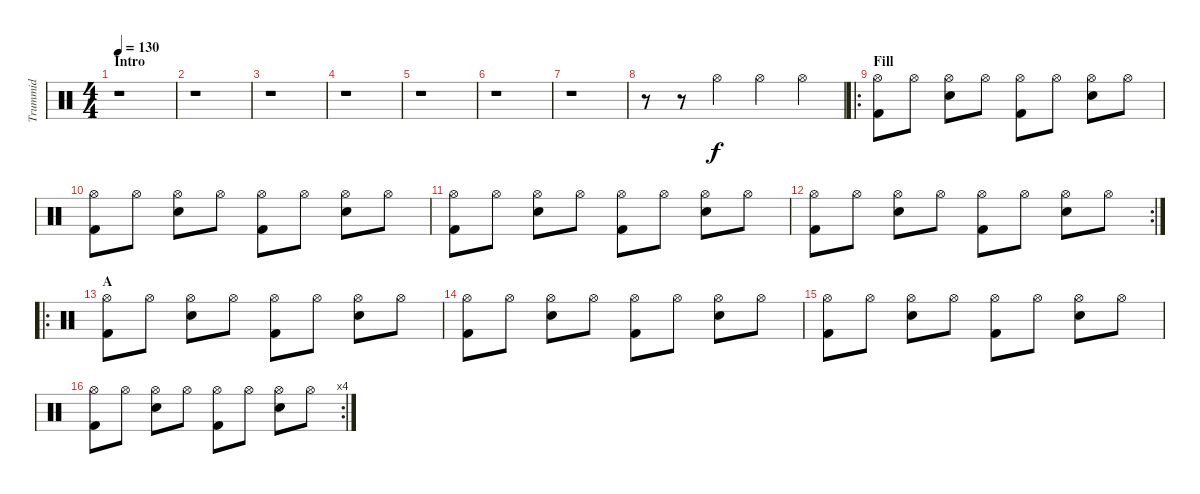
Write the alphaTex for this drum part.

\track ("Trummid" "Trummid") {instrument percussion}
\staff {score}
\articulation defaults
\ts (4 4)
\section ("" "Intro")
\tempo 130
\clef neutral
\ks c
r.1{dy f} |
r.1 |
r.1 |
r.1 |
r.1 |
r.1 |
r.1 |
r.8 r.8 "Hi-Hat (open)".4 "Hi-Hat (open)".4 "Hi-Hat (open)".4 |
\ro
\section ("" "Fill")
("Hi-Hat (open)" "Kick (hit) 2").8 "Hi-Hat (open)".8 ("Hi-Hat (open)" "Snare (hit) 2").8 "Hi-Hat (open)".8 ("Hi-Hat (open)" "Kick (hit) 2").8 "Hi-Hat (open)".8 ("Hi-Hat (open)" "Snare (hit) 2").8 "Hi-Hat (open)".8 |
("Hi-Hat (open)" "Kick (hit) 2").8 "Hi-Hat (open)".8 ("Hi-Hat (open)" "Snare (hit) 2").8 "Hi-Hat (open)".8 ("Hi-Hat (open)" "Kick (hit) 2").8 "Hi-Hat (open)".8 ("Hi-Hat (open)" "Snare (hit) 2").8 "Hi-Hat (open)".8 |
("Hi-Hat (open)" "Kick (hit) 2").8 "Hi-Hat (open)".8 ("Hi-Hat (open)" "Snare (hit) 2").8 "Hi-Hat (open)".8 ("Hi-Hat (open)" "Kick (hit) 2").8 "Hi-Hat (open)".8 ("Hi-Hat (open)" "Snare (hit) 2").8 "Hi-Hat (open)".8 |
\rc 2
("Hi-Hat (open)" "Kick (hit) 2").8 "Hi-Hat (open)".8 ("Hi-Hat (open)" "Snare (hit) 2").8 "Hi-Hat (open)".8 ("Hi-Hat (open)" "Kick (hit) 2").8 "Hi-Hat (open)".8 ("Hi-Hat (open)" "Snare (hit) 2").8 "Hi-Hat (open)".8 |
\ro
\section ("" "A")
("Hi-Hat (open)" "Kick (hit) 2").8 "Hi-Hat (open)".8 ("Hi-Hat (open)" "Snare (hit) 2").8 "Hi-Hat (open)".8 ("Hi-Hat (open)" "Kick (hit) 2").8 "Hi-Hat (open)".8 ("Hi-Hat (open)" "Snare (hit) 2").8 "Hi-Hat (open)".8 |
("Hi-Hat (open)" "Kick (hit) 2").8 "Hi-Hat (open)".8 ("Hi-Hat (open)" "Snare (hit) 2").8 "Hi-Hat (open)".8 ("Hi-Hat (open)" "Kick (hit) 2").8 "Hi-Hat (open)".8 ("Hi-Hat (open)" "Snare (hit) 2").8 "Hi-Hat (open)".8 |
("Hi-Hat (open)" "Kick (hit) 2").8 "Hi-Hat (open)".8 ("Hi-Hat (open)" "Snare (hit) 2").8 "Hi-Hat (open)".8 ("Hi-Hat (open)" "Kick (hit) 2").8 "Hi-Hat (open)".8 ("Hi-Hat (open)" "Snare (hit) 2").8 "Hi-Hat (open)".8 |
\rc 4
("Hi-Hat (open)" "Kick (hit) 2").8 "Hi-Hat (open)".8 ("Hi-Hat (open)" "Snare (hit) 2").8 "Hi-Hat (open)".8 ("Hi-Hat (open)" "Kick (hit) 2").8 "Hi-Hat (open)".8 ("Hi-Hat (open)" "Snare (hit) 2").8 "Hi-Hat (open)".8
